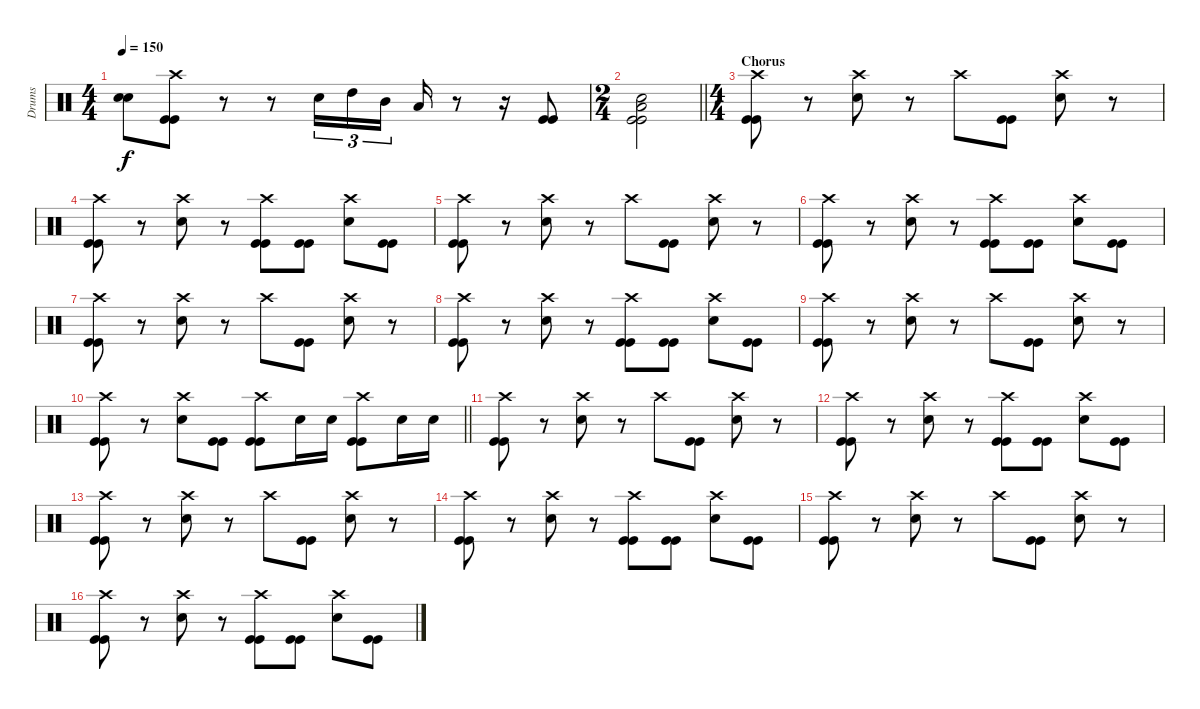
\track ("Drums" "Drums") {instrument percussion}
\staff {score}
\articulation defaults
\ts (4 4)
\tempo 150
\clef neutral
\ks c
("Snare (hit) 2" "Snare (hit) 2").8{dy f} ("Crash high (hit)" "Kick (hit)" "Kick (hit)").8 r.8 r.8 "Snare (hit) 2".16{tu (3 2)} "High Tom (hit)".16{tu (3 2)} "Mid Tom (hit)".16{tu (3 2) beam splitsecondary} "Low Floor Tom (hit)".16 r.8 r.16 ("Kick (hit)" "Kick (hit)").8 |
\ts (2 4)
\barLineRight lightlight
("Kick (hit)" "Snare (hit) 2" "Low Floor Tom (hit)" "Kick (hit)").2 |
\ts (4 4)
\section ("" "Chorus")
("Crash high (hit)" "Kick (hit)" "Kick (hit)").8 r.8 ("Crash high (hit)" "Snare (hit) 2").8 r.8 "Crash high (hit)".8 ("Kick (hit)" "Kick (hit)").8 ("Crash high (hit)" "Snare (hit) 2").8 r.8 |
("Crash high (hit)" "Kick (hit)" "Kick (hit)").8 r.8 ("Crash high (hit)" "Snare (hit) 2").8 r.8 ("Crash high (hit)" "Kick (hit)" "Kick (hit)").8 ("Kick (hit)" "Kick (hit)").8 ("Crash high (hit)" "Snare (hit) 2").8 ("Kick (hit)" "Kick (hit)").8 |
("Crash high (hit)" "Kick (hit)" "Kick (hit)").8 r.8 ("Crash high (hit)" "Snare (hit) 2").8 r.8 "Crash high (hit)".8 ("Kick (hit)" "Kick (hit)").8 ("Crash high (hit)" "Snare (hit) 2").8 r.8 |
("Crash high (hit)" "Kick (hit)" "Kick (hit)").8 r.8 ("Crash high (hit)" "Snare (hit) 2").8 r.8 ("Crash high (hit)" "Kick (hit)" "Kick (hit)").8 ("Kick (hit)" "Kick (hit)").8 ("Crash high (hit)" "Snare (hit) 2").8 ("Kick (hit)" "Kick (hit)").8 |
("Crash high (hit)" "Kick (hit)" "Kick (hit)").8 r.8 ("Crash high (hit)" "Snare (hit) 2").8 r.8 "Crash high (hit)".8 ("Kick (hit)" "Kick (hit)").8 ("Crash high (hit)" "Snare (hit) 2").8 r.8 |
("Crash high (hit)" "Kick (hit)" "Kick (hit)").8 r.8 ("Crash high (hit)" "Snare (hit) 2").8 r.8 ("Crash high (hit)" "Kick (hit)" "Kick (hit)").8 ("Kick (hit)" "Kick (hit)").8 ("Crash high (hit)" "Snare (hit) 2").8 ("Kick (hit)" "Kick (hit)").8 |
("Crash high (hit)" "Kick (hit)" "Kick (hit)").8 r.8 ("Crash high (hit)" "Snare (hit) 2").8 r.8 "Crash high (hit)".8 ("Kick (hit)" "Kick (hit)").8 ("Crash high (hit)" "Snare (hit) 2").8 r.8 |
\barLineRight lightlight
("Crash high (hit)" "Kick (hit)" "Kick (hit)").8 r.8 ("Crash high (hit)" "Snare (hit) 2").8 ("Kick (hit)" "Kick (hit)").8 ("Crash high (hit)" "Kick (hit)" "Kick (hit)").8 "Snare (hit) 2".16 "Snare (hit) 2".16 ("Crash high (hit)" "Kick (hit)" "Kick (hit)").8 "Snare (hit) 2".16 "Snare (hit) 2".16 |
("Crash high (hit)" "Kick (hit)" "Kick (hit)").8 r.8 ("Crash high (hit)" "Snare (hit) 2").8 r.8 "Crash high (hit)".8 ("Kick (hit)" "Kick (hit)").8 ("Crash high (hit)" "Snare (hit) 2").8 r.8 |
("Crash high (hit)" "Kick (hit)" "Kick (hit)").8 r.8 ("Crash high (hit)" "Snare (hit) 2").8 r.8 ("Crash high (hit)" "Kick (hit)" "Kick (hit)").8 ("Kick (hit)" "Kick (hit)").8 ("Crash high (hit)" "Snare (hit) 2").8 ("Kick (hit)" "Kick (hit)").8 |
("Crash high (hit)" "Kick (hit)" "Kick (hit)").8 r.8 ("Crash high (hit)" "Snare (hit) 2").8 r.8 "Crash high (hit)".8 ("Kick (hit)" "Kick (hit)").8 ("Crash high (hit)" "Snare (hit) 2").8 r.8 |
("Crash high (hit)" "Kick (hit)" "Kick (hit)").8 r.8 ("Crash high (hit)" "Snare (hit) 2").8 r.8 ("Crash high (hit)" "Kick (hit)" "Kick (hit)").8 ("Kick (hit)" "Kick (hit)").8 ("Crash high (hit)" "Snare (hit) 2").8 ("Kick (hit)" "Kick (hit)").8 |
("Crash high (hit)" "Kick (hit)" "Kick (hit)").8 r.8 ("Crash high (hit)" "Snare (hit) 2").8 r.8 "Crash high (hit)".8 ("Kick (hit)" "Kick (hit)").8 ("Crash high (hit)" "Snare (hit) 2").8 r.8 |
("Crash high (hit)" "Kick (hit)" "Kick (hit)").8 r.8 ("Crash high (hit)" "Snare (hit) 2").8 r.8 ("Crash high (hit)" "Kick (hit)" "Kick (hit)").8 ("Kick (hit)" "Kick (hit)").8 ("Crash high (hit)" "Snare (hit) 2").8 ("Kick (hit)" "Kick (hit)").8
